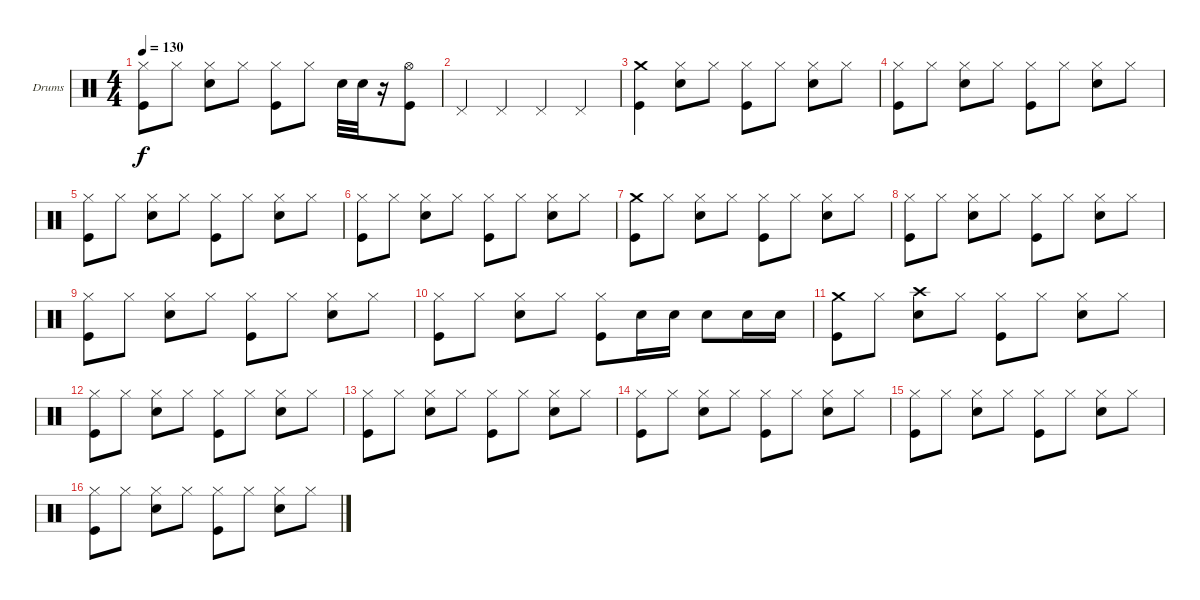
\defaultSystemsLayout 4
\bracketExtendMode groupsimilarinstruments
\firstSystemTrackNameOrientation horizontal
\otherSystemsTrackNameOrientation horizontal
\track ("Stefan Kaufmann" "Drums") {instrument percussion}
\staff {score}
\articulation defaults
\ts (4 4)
\tempo 130
\clef neutral
\ks c
("Hi-Hat (closed)" "Kick (hit)").8{dy f} "Hi-Hat (closed)".8 ("Hi-Hat (closed)" "Snare (hit) 2").8 "Hi-Hat (closed)".8 ("Hi-Hat (closed)" "Kick (hit)").8 "Hi-Hat (closed)".8 "Snare (hit) 2".32 "Snare (hit) 2".32 r.16 ("Hi-Hat (open)" "Kick (hit)").8 |
"Pedal Hi-Hat (hit)".4 "Pedal Hi-Hat (hit)".4 "Pedal Hi-Hat (hit)".4 "Pedal Hi-Hat (hit)".4 |
("Crash medium (hit)" "Kick (hit)").4 ("Hi-Hat (closed)" "Snare (hit) 2").8 "Hi-Hat (closed)".8 ("Hi-Hat (closed)" "Kick (hit)").8 "Hi-Hat (closed)".8 ("Hi-Hat (closed)" "Snare (hit) 2").8 "Hi-Hat (closed)".8 |
("Hi-Hat (closed)" "Kick (hit)").8 "Hi-Hat (closed)".8 ("Hi-Hat (closed)" "Snare (hit) 2").8 "Hi-Hat (closed)".8 ("Hi-Hat (closed)" "Kick (hit)").8 "Hi-Hat (closed)".8 ("Hi-Hat (closed)" "Snare (hit) 2").8 "Hi-Hat (closed)".8 |
("Hi-Hat (closed)" "Kick (hit)").8 "Hi-Hat (closed)".8 ("Hi-Hat (closed)" "Snare (hit) 2").8 "Hi-Hat (closed)".8 ("Hi-Hat (closed)" "Kick (hit)").8 "Hi-Hat (closed)".8 ("Hi-Hat (closed)" "Snare (hit) 2").8 "Hi-Hat (closed)".8 |
("Hi-Hat (closed)" "Kick (hit)").8 "Hi-Hat (closed)".8 ("Hi-Hat (closed)" "Snare (hit) 2").8 "Hi-Hat (closed)".8 ("Hi-Hat (closed)" "Kick (hit)").8 "Hi-Hat (closed)".8 ("Hi-Hat (closed)" "Snare (hit) 2").8 "Hi-Hat (closed)".8 |
("Crash medium (hit)" "Kick (hit)").8 "Hi-Hat (closed)".8 ("Hi-Hat (closed)" "Snare (hit) 2").8 "Hi-Hat (closed)".8 ("Hi-Hat (closed)" "Kick (hit)").8 "Hi-Hat (closed)".8 ("Hi-Hat (closed)" "Snare (hit) 2").8 "Hi-Hat (closed)".8 |
("Hi-Hat (closed)" "Kick (hit)").8 "Hi-Hat (closed)".8 ("Hi-Hat (closed)" "Snare (hit) 2").8 "Hi-Hat (closed)".8 ("Hi-Hat (closed)" "Kick (hit)").8 "Hi-Hat (closed)".8 ("Hi-Hat (closed)" "Snare (hit) 2").8 "Hi-Hat (closed)".8 |
("Hi-Hat (closed)" "Kick (hit)").8 "Hi-Hat (closed)".8 ("Hi-Hat (closed)" "Snare (hit) 2").8 "Hi-Hat (closed)".8 ("Hi-Hat (closed)" "Kick (hit)").8 "Hi-Hat (closed)".8 ("Hi-Hat (closed)" "Snare (hit) 2").8 "Hi-Hat (closed)".8 |
("Hi-Hat (closed)" "Kick (hit)").8 "Hi-Hat (closed)".8 ("Hi-Hat (closed)" "Snare (hit) 2").8 "Hi-Hat (closed)".8 ("Hi-Hat (closed)" "Kick (hit)").8 "Snare (hit) 2".16 "Snare (hit) 2".16 "Snare (hit) 2".8 "Snare (hit) 2".16 "Snare (hit) 2".16 |
("Crash medium (hit)" "Kick (hit)").8 "Hi-Hat (closed)".8 ("Crash high (hit)" "Snare (hit) 2").8 "Hi-Hat (closed)".8 ("Hi-Hat (closed)" "Kick (hit)").8 "Hi-Hat (closed)".8 ("Hi-Hat (closed)" "Snare (hit) 2").8 "Hi-Hat (closed)".8 |
("Hi-Hat (closed)" "Kick (hit)").8 "Hi-Hat (closed)".8 ("Hi-Hat (closed)" "Snare (hit) 2").8 "Hi-Hat (closed)".8 ("Hi-Hat (closed)" "Kick (hit)").8 "Hi-Hat (closed)".8 ("Hi-Hat (closed)" "Snare (hit) 2").8 "Hi-Hat (closed)".8 |
("Hi-Hat (closed)" "Kick (hit)").8 "Hi-Hat (closed)".8 ("Hi-Hat (closed)" "Snare (hit) 2").8 "Hi-Hat (closed)".8 ("Hi-Hat (closed)" "Kick (hit)").8 "Hi-Hat (closed)".8 ("Hi-Hat (closed)" "Snare (hit) 2").8 "Hi-Hat (closed)".8 |
("Hi-Hat (closed)" "Kick (hit)").8 "Hi-Hat (closed)".8 ("Hi-Hat (closed)" "Snare (hit) 2").8 "Hi-Hat (closed)".8 ("Hi-Hat (closed)" "Kick (hit)").8 "Hi-Hat (closed)".8 ("Hi-Hat (closed)" "Snare (hit) 2").8 "Hi-Hat (closed)".8 |
("Hi-Hat (closed)" "Kick (hit)").8 "Hi-Hat (closed)".8 ("Hi-Hat (closed)" "Snare (hit) 2").8 "Hi-Hat (closed)".8 ("Hi-Hat (closed)" "Kick (hit)").8 "Hi-Hat (closed)".8 ("Hi-Hat (closed)" "Snare (hit) 2").8 "Hi-Hat (closed)".8 |
("Hi-Hat (closed)" "Kick (hit)").8 "Hi-Hat (closed)".8 ("Hi-Hat (closed)" "Snare (hit) 2").8 "Hi-Hat (closed)".8 ("Hi-Hat (closed)" "Kick (hit)").8 "Hi-Hat (closed)".8 ("Hi-Hat (closed)" "Snare (hit) 2").8 "Hi-Hat (closed)".8
